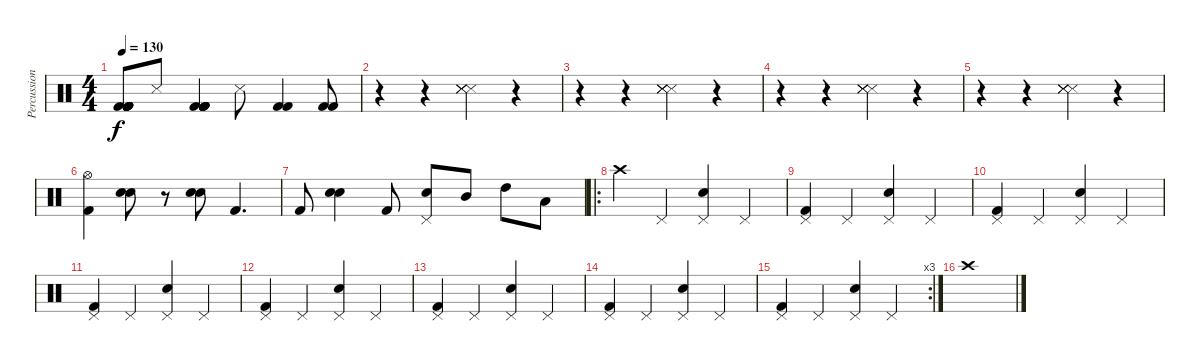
\track ("Percussion 3" "Percussion") {instrument percussion}
\staff {score}
\articulation defaults
\ts (4 4)
\tempo 130
\clef neutral
\ks c
("Kick (hit) 2" "Kick (hit) 2" "Kick (hit) 2" "Kick (hit) 2" "Kick (hit) 2" "Kick (hit) 2").8{dy f} "Snare (side stick) 3".8 ("Kick (hit) 2" "Kick (hit) 2" "Kick (hit) 2" "Kick (hit) 2" "Kick (hit) 2" "Kick (hit) 2").4 "Snare (side stick) 3".8 ("Kick (hit) 2" "Kick (hit) 2").4 ("Kick (hit) 2" "Kick (hit) 2").8 |
r.4 r.4 ("Snare (side stick) 3" "Snare (side stick) 3" "Snare (side stick) 3" "Snare (side stick) 3").4 r.4 |
r.4 r.4 ("Snare (side stick) 3" "Snare (side stick) 3" "Snare (side stick) 3" "Snare (side stick) 3").4 r.4 |
r.4 r.4 ("Snare (side stick) 3" "Snare (side stick) 3" "Snare (side stick) 3" "Snare (side stick) 3").4 r.4 |
r.4 r.4 ("Snare (side stick) 3" "Snare (side stick) 3" "Snare (side stick) 3" "Snare (side stick) 3").4 r.4 |
("Hi-Hat (open)" "Kick (hit) 2").4 ("Electric Snare (hit)" "Snare (hit) 2").8 r.8 ("Electric Snare (hit)" "Snare (hit) 2").8 "Kick (hit) 2".4{d} |
"Kick (hit) 2".8 ("Electric Snare (hit)" "Snare (hit) 2").4 "Kick (hit) 2".8 ("Pedal Hi-Hat (hit)" "Snare (hit) 2").8 "Mid Tom (hit)".8 "High Tom (hit)".8 "Low Tom (hit)".8 |
\ro "Crash high (hit)".4 "Pedal Hi-Hat (hit)".4
("Pedal Hi-Hat (hit)" "Snare (hit) 2").4 "Pedal Hi-Hat (hit)".4 |
("Pedal Hi-Hat (hit)" "Kick (hit) 2").4 "Pedal Hi-Hat (hit)".4 ("Pedal Hi-Hat (hit)" "Snare (hit) 2").4 "Pedal Hi-Hat (hit)".4 |
("Pedal Hi-Hat (hit)" "Kick (hit) 2").4 "Pedal Hi-Hat (hit)".4 ("Pedal Hi-Hat (hit)" "Snare (hit) 2").4 "Pedal Hi-Hat (hit)".4 |
("Pedal Hi-Hat (hit)" "Kick (hit) 2").4 "Pedal Hi-Hat (hit)".4 ("Pedal Hi-Hat (hit)" "Snare (hit) 2").4 "Pedal Hi-Hat (hit)".4 |
("Pedal Hi-Hat (hit)" "Kick (hit) 2").4 "Pedal Hi-Hat (hit)".4 ("Pedal Hi-Hat (hit)" "Snare (hit) 2").4 "Pedal Hi-Hat (hit)".4 |
("Pedal Hi-Hat (hit)" "Kick (hit) 2").4 "Pedal Hi-Hat (hit)".4 ("Pedal Hi-Hat (hit)" "Snare (hit) 2").4 "Pedal Hi-Hat (hit)".4 |
("Pedal Hi-Hat (hit)" "Kick (hit) 2").4 "Pedal Hi-Hat (hit)".4 ("Pedal Hi-Hat (hit)" "Snare (hit) 2").4 "Pedal Hi-Hat (hit)".4 |
\rc 3
("Pedal Hi-Hat (hit)" "Kick (hit) 2").4 "Pedal Hi-Hat (hit)".4 ("Pedal Hi-Hat (hit)" "Snare (hit) 2").4 "Pedal Hi-Hat (hit)".4 |
"Crash high (hit)".1
